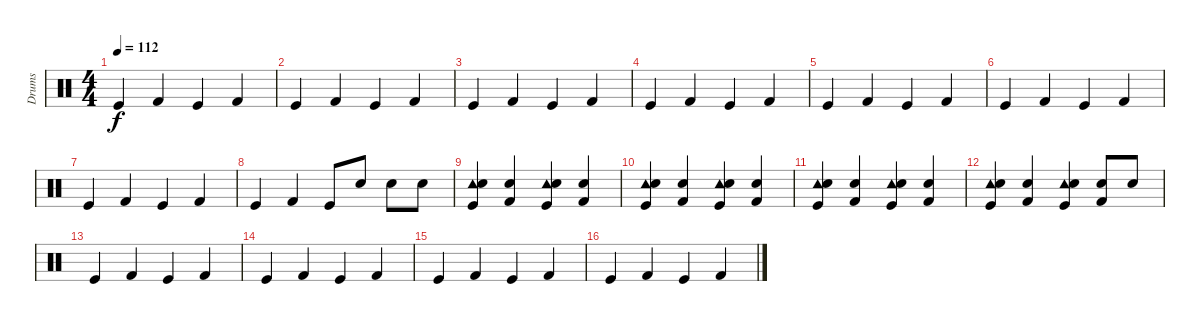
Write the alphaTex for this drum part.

\track ("Drums" "Drums") {instrument percussion}
\staff {score}
\articulation defaults
\ts (4 4)
\tempo 112
\clef neutral
\ks c "Kick (hit)".4{dy f} "Kick (hit) 2".4 "Kick (hit)".4 "Kick (hit) 2".4
|
"Kick (hit)".4 "Kick (hit) 2".4 "Kick (hit)".4 "Kick (hit) 2".4 |
"Kick (hit)".4 "Kick (hit) 2".4 "Kick (hit)".4 "Kick (hit) 2".4 |
"Kick (hit)".4 "Kick (hit) 2".4 "Kick (hit)".4 "Kick (hit) 2".4 |
"Kick (hit)".4 "Kick (hit) 2".4 "Kick (hit)".4 "Kick (hit) 2".4 |
"Kick (hit)".4 "Kick (hit) 2".4 "Kick (hit)".4 "Kick (hit) 2".4 |
"Kick (hit)".4 "Kick (hit) 2".4 "Kick (hit)".4 "Kick (hit) 2".4 |
"Kick (hit)".4 "Kick (hit) 2".4 "Kick (hit)".8 "Snare (hit) 2".8 "Snare (hit) 2".8 "Snare (hit) 2".8 |
("Tambourine (hit)" "Kick (hit)" "Snare (hit) 2").4 ("Snare (hit) 2" "Kick (hit) 2").4 ("Kick (hit)" "Tambourine (hit)" "Snare (hit) 2").4 ("Snare (hit) 2" "Kick (hit) 2").4 |
("Tambourine (hit)" "Kick (hit)" "Snare (hit) 2").4 ("Snare (hit) 2" "Kick (hit) 2").4 ("Kick (hit)" "Tambourine (hit)" "Snare (hit) 2").4 ("Snare (hit) 2" "Kick (hit) 2").4 |
("Tambourine (hit)" "Kick (hit)" "Snare (hit) 2").4 ("Snare (hit) 2" "Kick (hit) 2").4 ("Kick (hit)" "Tambourine (hit)" "Snare (hit) 2").4 ("Snare (hit) 2" "Kick (hit) 2").4 |
("Tambourine (hit)" "Kick (hit)" "Snare (hit) 2").4 ("Snare (hit) 2" "Kick (hit) 2").4 ("Kick (hit)" "Tambourine (hit)" "Snare (hit) 2").4 ("Snare (hit) 2" "Kick (hit) 2").8 "Snare (hit) 2".8 |
"Kick (hit)".4 "Kick (hit) 2".4 "Kick (hit)".4 "Kick (hit) 2".4 |
"Kick (hit)".4 "Kick (hit) 2".4 "Kick (hit)".4 "Kick (hit) 2".4 |
"Kick (hit)".4 "Kick (hit) 2".4 "Kick (hit)".4 "Kick (hit) 2".4 |
"Kick (hit)".4 "Kick (hit) 2".4 "Kick (hit)".4 "Kick (hit) 2".4
